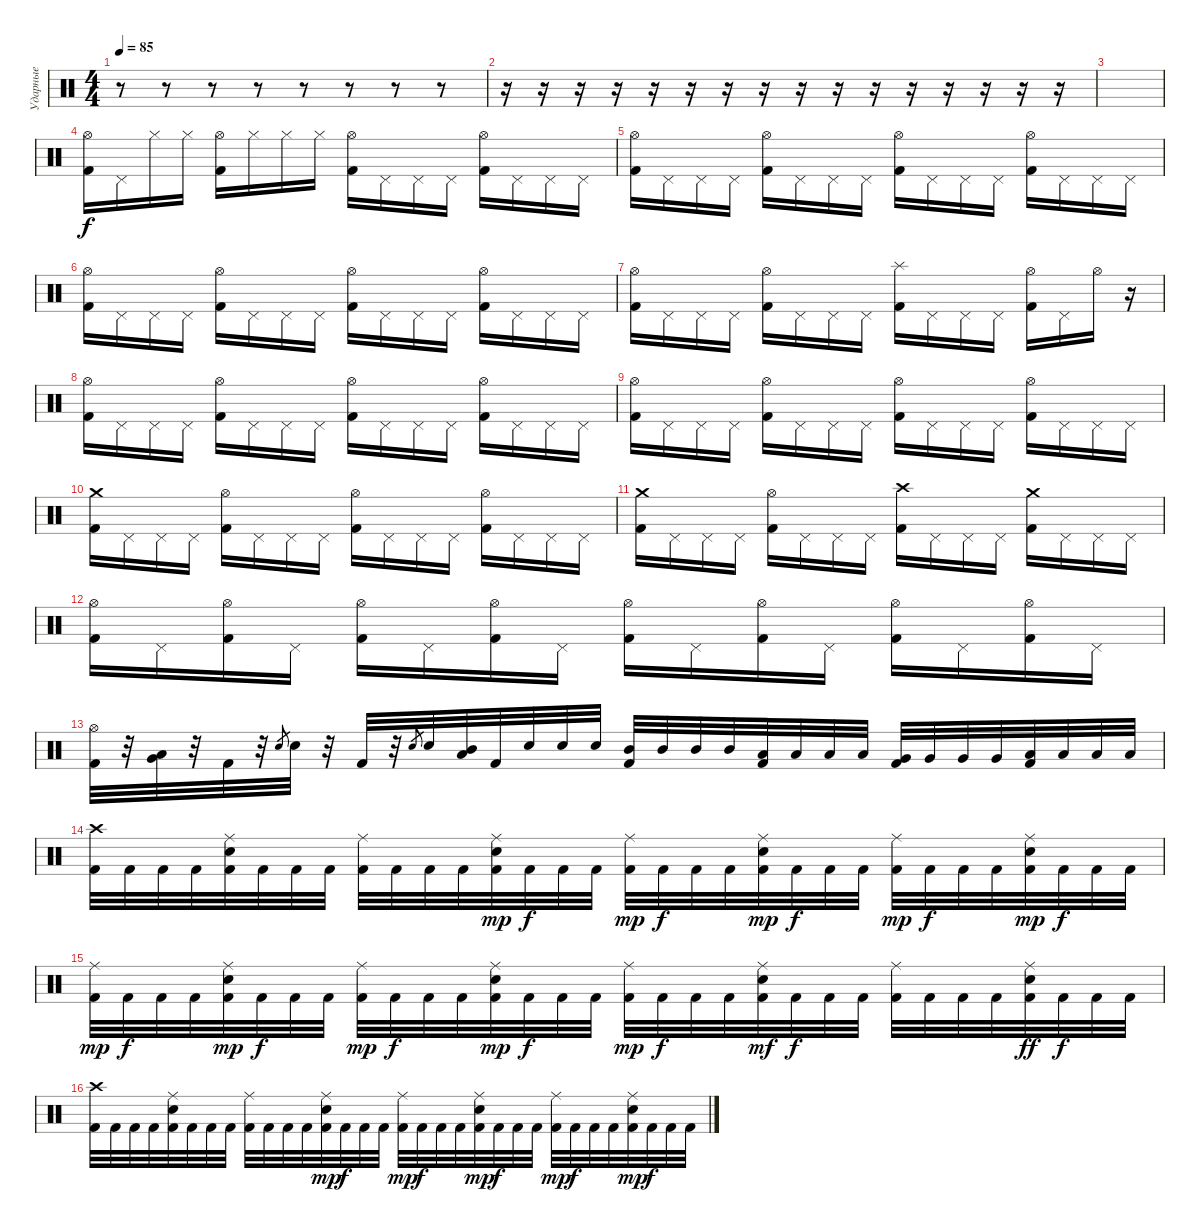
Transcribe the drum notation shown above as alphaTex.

\track ("Ударные" "Ударные") {instrument percussion}
\staff {score}
\articulation defaults
\ts (4 4)
\tempo 85
\clef neutral
\ks c
r.8{dy f} r.8 r.8 r.8 r.8 r.8 r.8 r.8 |
r.16 r.16 r.16 r.16 r.16 r.16 r.16 r.16 r.16 r.16 r.16 r.16 r.16 r.16 r.16 r.16 |
|
("Hi-Hat (open)" "Kick (hit) 2").16 "Pedal Hi-Hat (hit)".16 "Hi-Hat (closed)".16 "Hi-Hat (closed)".16 ("Hi-Hat (open)" "Kick (hit) 2").16 "Hi-Hat (closed)".16 "Hi-Hat (closed)".16 "Hi-Hat (closed)".16 ("Hi-Hat (open)" "Kick (hit) 2").16 "Pedal Hi-Hat (hit)".16 "Pedal Hi-Hat (hit)".16 "Pedal Hi-Hat (hit)".16 ("Hi-Hat (open)" "Kick (hit) 2").16 "Pedal Hi-Hat (hit)".16 "Pedal Hi-Hat (hit)".16 "Pedal Hi-Hat (hit)".16 |
("Hi-Hat (open)" "Kick (hit) 2").16 "Pedal Hi-Hat (hit)".16 "Pedal Hi-Hat (hit)".16 "Pedal Hi-Hat (hit)".16 ("Hi-Hat (open)" "Kick (hit) 2").16 "Pedal Hi-Hat (hit)".16 "Pedal Hi-Hat (hit)".16 "Pedal Hi-Hat (hit)".16 ("Hi-Hat (open)" "Kick (hit) 2").16 "Pedal Hi-Hat (hit)".16 "Pedal Hi-Hat (hit)".16 "Pedal Hi-Hat (hit)".16 ("Hi-Hat (open)" "Kick (hit) 2").16 "Pedal Hi-Hat (hit)".16 "Pedal Hi-Hat (hit)".16 "Pedal Hi-Hat (hit)".16 |
("Hi-Hat (open)" "Kick (hit) 2").16 "Pedal Hi-Hat (hit)".16 "Pedal Hi-Hat (hit)".16 "Pedal Hi-Hat (hit)".16 ("Hi-Hat (open)" "Kick (hit) 2").16 "Pedal Hi-Hat (hit)".16 "Pedal Hi-Hat (hit)".16 "Pedal Hi-Hat (hit)".16 ("Hi-Hat (open)" "Kick (hit) 2").16 "Pedal Hi-Hat (hit)".16 "Pedal Hi-Hat (hit)".16 "Pedal Hi-Hat (hit)".16 ("Hi-Hat (open)" "Kick (hit) 2").16 "Pedal Hi-Hat (hit)".16 "Pedal Hi-Hat (hit)".16 "Pedal Hi-Hat (hit)".16 |
("Hi-Hat (open)" "Kick (hit) 2").16 "Pedal Hi-Hat (hit)".16 "Pedal Hi-Hat (hit)".16 "Pedal Hi-Hat (hit)".16 ("Hi-Hat (open)" "Kick (hit) 2").16 "Pedal Hi-Hat (hit)".16 "Pedal Hi-Hat (hit)".16 "Pedal Hi-Hat (hit)".16 ("Splash (hit)" "Kick (hit) 2").16 "Pedal Hi-Hat (hit)".16 "Pedal Hi-Hat (hit)".16 "Pedal Hi-Hat (hit)".16 ("Hi-Hat (open)" "Kick (hit) 2").16 "Pedal Hi-Hat (hit)".16 "Hi-Hat (open)".16 r.16 |
("Hi-Hat (open)" "Kick (hit) 2").16 "Pedal Hi-Hat (hit)".16 "Pedal Hi-Hat (hit)".16 "Pedal Hi-Hat (hit)".16 ("Hi-Hat (open)" "Kick (hit) 2").16 "Pedal Hi-Hat (hit)".16 "Pedal Hi-Hat (hit)".16 "Pedal Hi-Hat (hit)".16 ("Hi-Hat (open)" "Kick (hit) 2").16 "Pedal Hi-Hat (hit)".16 "Pedal Hi-Hat (hit)".16 "Pedal Hi-Hat (hit)".16 ("Hi-Hat (open)" "Kick (hit) 2").16 "Pedal Hi-Hat (hit)".16 "Pedal Hi-Hat (hit)".16 "Pedal Hi-Hat (hit)".16 |
("Hi-Hat (open)" "Kick (hit) 2").16 "Pedal Hi-Hat (hit)".16 "Pedal Hi-Hat (hit)".16 "Pedal Hi-Hat (hit)".16 ("Hi-Hat (open)" "Kick (hit) 2").16 "Pedal Hi-Hat (hit)".16 "Pedal Hi-Hat (hit)".16 "Pedal Hi-Hat (hit)".16 ("Hi-Hat (open)" "Kick (hit) 2").16 "Pedal Hi-Hat (hit)".16 "Pedal Hi-Hat (hit)".16 "Pedal Hi-Hat (hit)".16 ("Hi-Hat (open)" "Kick (hit) 2").16 "Pedal Hi-Hat (hit)".16 "Pedal Hi-Hat (hit)".16 "Pedal Hi-Hat (hit)".16 |
("Crash medium (hit)" "Kick (hit) 2").16 "Pedal Hi-Hat (hit)".16 "Pedal Hi-Hat (hit)".16 "Pedal Hi-Hat (hit)".16 ("Hi-Hat (open)" "Kick (hit) 2").16 "Pedal Hi-Hat (hit)".16 "Pedal Hi-Hat (hit)".16 "Pedal Hi-Hat (hit)".16 ("Hi-Hat (open)" "Kick (hit) 2").16 "Pedal Hi-Hat (hit)".16 "Pedal Hi-Hat (hit)".16 "Pedal Hi-Hat (hit)".16 ("Hi-Hat (open)" "Kick (hit) 2").16 "Pedal Hi-Hat (hit)".16 "Pedal Hi-Hat (hit)".16 "Pedal Hi-Hat (hit)".16 |
("Crash medium (hit)" "Kick (hit) 2").16 "Pedal Hi-Hat (hit)".16 "Pedal Hi-Hat (hit)".16 "Pedal Hi-Hat (hit)".16 ("Hi-Hat (open)" "Kick (hit) 2").16 "Pedal Hi-Hat (hit)".16 "Pedal Hi-Hat (hit)".16 "Pedal Hi-Hat (hit)".16 ("Crash high (hit)" "Kick (hit) 2").16 "Pedal Hi-Hat (hit)".16 "Pedal Hi-Hat (hit)".16 "Pedal Hi-Hat (hit)".16 ("Crash medium (hit)" "Kick (hit) 2").16 "Pedal Hi-Hat (hit)".16 "Pedal Hi-Hat (hit)".16 "Pedal Hi-Hat (hit)".16 |
("Hi-Hat (open)" "Kick (hit) 2").16 "Pedal Hi-Hat (hit)".16 ("Hi-Hat (open)" "Kick (hit) 2").16 "Pedal Hi-Hat (hit)".16 ("Hi-Hat (open)" "Kick (hit) 2").16 "Pedal Hi-Hat (hit)".16 ("Hi-Hat (open)" "Kick (hit) 2").16 "Pedal Hi-Hat (hit)".16 ("Hi-Hat (open)" "Kick (hit) 2").16 "Pedal Hi-Hat (hit)".16 ("Hi-Hat (open)" "Kick (hit) 2").16 "Pedal Hi-Hat (hit)".16 ("Hi-Hat (open)" "Kick (hit) 2").16 "Pedal Hi-Hat (hit)".16 ("Hi-Hat (open)" "Kick (hit) 2").16 "Pedal Hi-Hat (hit)".16 |
("Hi-Hat (open)" "Kick (hit) 2").32 r.32 ("Very Low Tom (hit)" "Low Floor Tom (hit)").32 r.32 "Kick (hit) 2".32 r.32 "Snare (hit) 2".8{gr} "Snare (hit) 2".32 r.32 "Kick (hit) 2".32 r.32 "Snare (hit) 2".8{gr} "Snare (hit) 2".32 ("Mid Tom (hit)" "Low Tom (hit)").32 "Kick (hit) 2".32 "Snare (hit) 2".32 "Snare (hit) 2".32 "Snare (hit) 2".32 ("Mid Tom (hit)" "Kick (hit) 2").32 "Mid Tom (hit)".32 "Mid Tom (hit)".32 "Mid Tom (hit)".32 ("Low Tom (hit)" "Kick (hit) 2").32 "Low Tom (hit)".32 "Low Tom (hit)".32 "Low Tom (hit)".32 ("Very Low Tom (hit)" "Kick (hit) 2").32 "Very Low Tom (hit)".32 "Very Low Tom (hit)".32 "Very Low Tom (hit)".32 ("Low Floor Tom (hit)" "Kick (hit) 2").32 "Low Floor Tom (hit)".32 "Low Floor Tom (hit)".32 "Low Floor Tom (hit)".32 |
("Crash high (hit)" "Kick (hit) 2").32 "Kick (hit) 2".32 "Kick (hit) 2".32 "Kick (hit) 2".32 ("Ride (middle)" "Snare (hit) 2" "Kick (hit) 2").32 "Kick (hit) 2".32 "Kick (hit) 2".32 "Kick (hit) 2".32 ("Ride (middle)" "Kick (hit) 2").32 "Kick (hit) 2".32 "Kick (hit) 2".32 "Kick (hit) 2".32 ("Ride (middle)" "Snare (hit) 2" "Kick (hit) 2").32{dy mp} "Kick (hit) 2".32{dy f} "Kick (hit) 2".32 "Kick (hit) 2".32 ("Ride (middle)" "Kick (hit) 2").32{dy mp} "Kick (hit) 2".32{dy f} "Kick (hit) 2".32 "Kick (hit) 2".32 ("Ride (middle)" "Snare (hit) 2" "Kick (hit) 2").32{dy mp} "Kick (hit) 2".32{dy f} "Kick (hit) 2".32 "Kick (hit) 2".32 ("Ride (middle)" "Kick (hit) 2").32{dy mp} "Kick (hit) 2".32{dy f} "Kick (hit) 2".32 "Kick (hit) 2".32 ("Ride (middle)" "Snare (hit) 2" "Kick (hit) 2").32{dy mp} "Kick (hit) 2".32{dy f} "Kick (hit) 2".32 "Kick (hit) 2".32 |
("Ride (middle)" "Kick (hit) 2").32{dy mp} "Kick (hit) 2".32{dy f} "Kick (hit) 2".32 "Kick (hit) 2".32 ("Ride (middle)" "Snare (hit) 2" "Kick (hit) 2").32{dy mp} "Kick (hit) 2".32{dy f} "Kick (hit) 2".32 "Kick (hit) 2".32 ("Ride (middle)" "Kick (hit) 2").32{dy mp} "Kick (hit) 2".32{dy f} "Kick (hit) 2".32 "Kick (hit) 2".32 ("Ride (middle)" "Snare (hit) 2" "Kick (hit) 2").32{dy mp} "Kick (hit) 2".32{dy f} "Kick (hit) 2".32 "Kick (hit) 2".32 ("Ride (middle)" "Kick (hit) 2").32{dy mp} "Kick (hit) 2".32{dy f} "Kick (hit) 2".32 "Kick (hit) 2".32 ("Ride (middle)" "Snare (hit) 2" "Kick (hit) 2").32{dy mf} "Kick (hit) 2".32{dy f} "Kick (hit) 2".32 "Kick (hit) 2".32 ("Ride (middle)" "Kick (hit) 2").32 "Kick (hit) 2".32 "Kick (hit) 2".32 "Kick (hit) 2".32 ("Ride (middle)" "Snare (hit) 2" "Kick (hit) 2").32{dy ff} "Kick (hit) 2".32{dy f} "Kick (hit) 2".32 "Kick (hit) 2".32 |
("Crash high (hit)" "Kick (hit) 2").32 "Kick (hit) 2".32 "Kick (hit) 2".32 "Kick (hit) 2".32 ("Ride (middle)" "Snare (hit) 2" "Kick (hit) 2").32 "Kick (hit) 2".32 "Kick (hit) 2".32 "Kick (hit) 2".32 ("Ride (middle)" "Kick (hit) 2").32 "Kick (hit) 2".32 "Kick (hit) 2".32 "Kick (hit) 2".32 ("Ride (middle)" "Snare (hit) 2" "Kick (hit) 2").32{dy mp} "Kick (hit) 2".32{dy f} "Kick (hit) 2".32 "Kick (hit) 2".32 ("Ride (middle)" "Kick (hit) 2").32{dy mp} "Kick (hit) 2".32{dy f} "Kick (hit) 2".32 "Kick (hit) 2".32 ("Ride (middle)" "Snare (hit) 2" "Kick (hit) 2").32{dy mp} "Kick (hit) 2".32{dy f} "Kick (hit) 2".32 "Kick (hit) 2".32 ("Ride (middle)" "Kick (hit) 2").32{dy mp} "Kick (hit) 2".32{dy f} "Kick (hit) 2".32 "Kick (hit) 2".32 ("Ride (middle)" "Snare (hit) 2" "Kick (hit) 2").32{dy mp} "Kick (hit) 2".32{dy f} "Kick (hit) 2".32 "Kick (hit) 2".32
